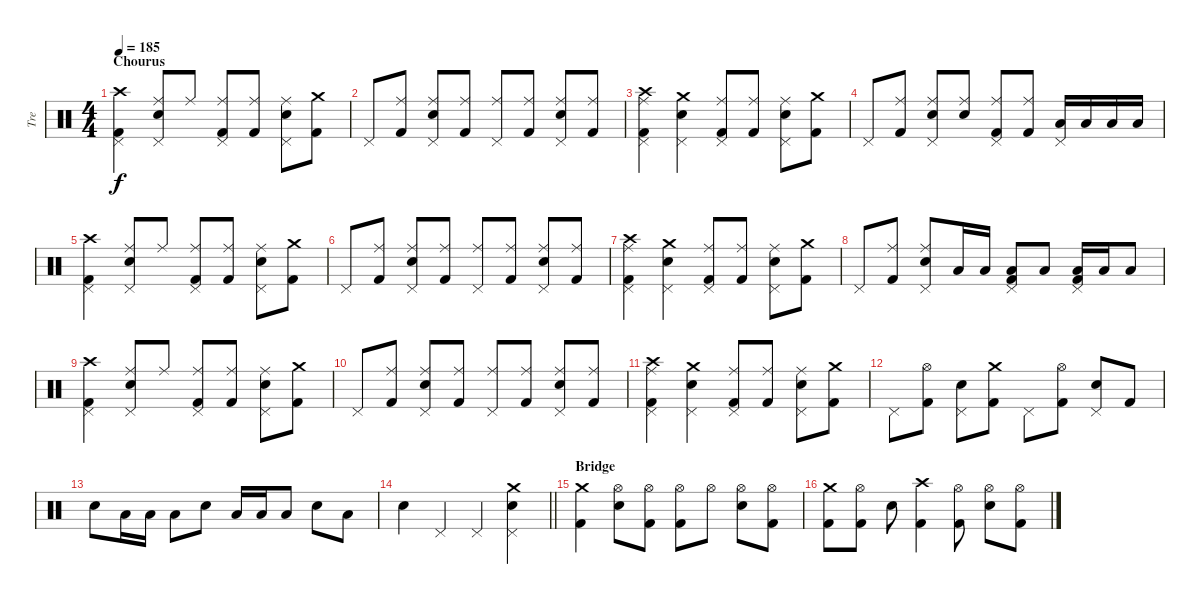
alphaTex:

\track ("Tre" "Tre") {instrument percussion}
\staff {score}
\articulation defaults
\ts (4 4)
\section ("" "Chourus")
\tempo 185
\clef neutral
\ks c
("Crash high (hit)" "Pedal Hi-Hat (hit)" "Kick (hit) 2").4{dy f} ("Ride (middle)" "Snare (hit) 2" "Pedal Hi-Hat (hit)").8 "Ride (middle)".8 ("Ride (middle)" "Pedal Hi-Hat (hit)" "Kick (hit) 2").8 ("Ride (middle)" "Kick (hit) 2").8 ("Ride (middle)" "Snare (hit) 2" "Pedal Hi-Hat (hit)").8 ("Crash medium (hit)" "Kick (hit) 2").8 |
"Pedal Hi-Hat (hit)".8 ("Ride (middle)" "Kick (hit) 2").8 ("Ride (middle)" "Snare (hit) 2" "Pedal Hi-Hat (hit)").8 ("Ride (middle)" "Kick (hit) 2").8 ("Ride (middle)" "Pedal Hi-Hat (hit)").8 ("Ride (middle)" "Kick (hit) 2").8 ("Ride (middle)" "Snare (hit) 2" "Pedal Hi-Hat (hit)").8 ("Ride (middle)" "Kick (hit) 2").8 |
("Crash high (hit)" "Ride (middle)" "Pedal Hi-Hat (hit)" "Kick (hit) 2").4 ("Crash medium (hit)" "Snare (hit) 2" "Pedal Hi-Hat (hit)").4 ("Ride (middle)" "Pedal Hi-Hat (hit)" "Kick (hit) 2").8 ("Ride (middle)" "Kick (hit) 2").8 ("Ride (middle)" "Snare (hit) 2" "Pedal Hi-Hat (hit)").8 ("Crash medium (hit)" "Kick (hit) 2").8 |
"Pedal Hi-Hat (hit)".8 ("Ride (middle)" "Kick (hit) 2").8 ("Ride (middle)" "Snare (hit) 2" "Pedal Hi-Hat (hit)").8 ("Ride (middle)" "Snare (hit) 2").8 ("Ride (middle)" "Pedal Hi-Hat (hit)" "Kick (hit) 2").8 ("Ride (middle)" "Kick (hit) 2").8 ("Low Tom (hit)" "Pedal Hi-Hat (hit)").16 "Low Tom (hit)".16 "Low Tom (hit)".16 "Low Tom (hit)".16 |
("Crash high (hit)" "Pedal Hi-Hat (hit)" "Kick (hit) 2").4 ("Ride (middle)" "Snare (hit) 2" "Pedal Hi-Hat (hit)").8 "Ride (middle)".8 ("Ride (middle)" "Pedal Hi-Hat (hit)" "Kick (hit) 2").8 ("Ride (middle)" "Kick (hit) 2").8 ("Ride (middle)" "Snare (hit) 2" "Pedal Hi-Hat (hit)").8 ("Crash medium (hit)" "Kick (hit) 2").8 |
"Pedal Hi-Hat (hit)".8 ("Ride (middle)" "Kick (hit) 2").8 ("Ride (middle)" "Snare (hit) 2" "Pedal Hi-Hat (hit)").8 ("Ride (middle)" "Kick (hit) 2").8 ("Ride (middle)" "Pedal Hi-Hat (hit)").8 ("Ride (middle)" "Kick (hit) 2").8 ("Ride (middle)" "Snare (hit) 2" "Pedal Hi-Hat (hit)").8 ("Ride (middle)" "Kick (hit) 2").8 |
("Crash high (hit)" "Ride (middle)" "Pedal Hi-Hat (hit)" "Kick (hit) 2").4 ("Crash medium (hit)" "Snare (hit) 2" "Pedal Hi-Hat (hit)").4 ("Ride (middle)" "Pedal Hi-Hat (hit)" "Kick (hit) 2").8 ("Ride (middle)" "Kick (hit) 2").8 ("Ride (middle)" "Snare (hit) 2" "Pedal Hi-Hat (hit)").8 ("Crash medium (hit)" "Kick (hit) 2").8 |
"Pedal Hi-Hat (hit)".8 ("Ride (middle)" "Kick (hit) 2").8 ("Ride (middle)" "Snare (hit) 2" "Pedal Hi-Hat (hit)").8 "Low Tom (hit)".16 "Low Tom (hit)".16 ("Low Tom (hit)" "Pedal Hi-Hat (hit)" "Kick (hit) 2").8 "Low Tom (hit)".8 ("Low Floor Tom (hit)" "Pedal Hi-Hat (hit)" "Kick (hit) 2").16 "Low Floor Tom (hit)".16 "Low Floor Tom (hit)".8 |
("Crash high (hit)" "Pedal Hi-Hat (hit)" "Kick (hit) 2").4 ("Ride (middle)" "Snare (hit) 2" "Pedal Hi-Hat (hit)").8 "Ride (middle)".8 ("Ride (middle)" "Pedal Hi-Hat (hit)" "Kick (hit) 2").8 ("Ride (middle)" "Kick (hit) 2").8 ("Ride (middle)" "Snare (hit) 2" "Pedal Hi-Hat (hit)").8 ("Crash medium (hit)" "Kick (hit) 2").8 |
"Pedal Hi-Hat (hit)".8 ("Ride (middle)" "Kick (hit) 2").8 ("Ride (middle)" "Snare (hit) 2" "Pedal Hi-Hat (hit)").8 ("Ride (middle)" "Kick (hit) 2").8 ("Ride (middle)" "Pedal Hi-Hat (hit)").8 ("Ride (middle)" "Kick (hit) 2").8 ("Ride (middle)" "Snare (hit) 2" "Pedal Hi-Hat (hit)").8 ("Ride (middle)" "Kick (hit) 2").8 |
("Crash high (hit)" "Ride (middle)" "Pedal Hi-Hat (hit)" "Kick (hit) 2").4 ("Crash medium (hit)" "Snare (hit) 2" "Pedal Hi-Hat (hit)").4 ("Ride (middle)" "Pedal Hi-Hat (hit)" "Kick (hit) 2").8 ("Ride (middle)" "Kick (hit) 2").8 ("Ride (middle)" "Snare (hit) 2" "Pedal Hi-Hat (hit)").8 ("Crash medium (hit)" "Kick (hit) 2").8 |
"Pedal Hi-Hat (hit)".8 ("Hi-Hat (open)" "Kick (hit) 2").8 ("Snare (hit) 2" "Pedal Hi-Hat (hit)").8 ("Crash medium (hit)" "Kick (hit) 2").8 "Pedal Hi-Hat (hit)".8 ("Hi-Hat (open)" "Kick (hit) 2").8 ("Snare (hit) 2" "Pedal Hi-Hat (hit)").8 "Kick (hit) 2".8 |
"Snare (hit) 2".8 "Low Floor Tom (hit)".16 "Low Floor Tom (hit)".16 "Low Floor Tom (hit)".8 "Snare (hit) 2".8 "Low Floor Tom (hit)".16 "Low Floor Tom (hit)".16 "Low Floor Tom (hit)".8 "Snare (hit) 2".8 "Low Floor Tom (hit)".8 |
\barLineRight lightlight "Snare (hit) 2".4 "Pedal Hi-Hat (hit)".4 "Pedal Hi-Hat (hit)".4
("Crash medium (hit)" "Snare (hit) 2" "Pedal Hi-Hat (hit)").4 |
\section ("" "Bridge")
("Crash medium (hit)" "Kick (hit) 2").4 ("Hi-Hat (open)" "Snare (hit) 2").8 ("Hi-Hat (open)" "Kick (hit) 2").8 ("Hi-Hat (open)" "Kick (hit) 2").8 "Hi-Hat (open)".8 ("Hi-Hat (open)" "Snare (hit) 2").8 ("Hi-Hat (open)" "Kick (hit) 2").8 |
("Crash medium (hit)" "Kick (hit) 2").8 ("Hi-Hat (open)" "Kick (hit) 2").8 "Snare (hit) 2".8 ("Crash high (hit)" "Kick (hit) 2").4 ("Hi-Hat (open)" "Kick (hit) 2").8 ("Hi-Hat (open)" "Snare (hit) 2").8 ("Hi-Hat (open)" "Kick (hit) 2").8
